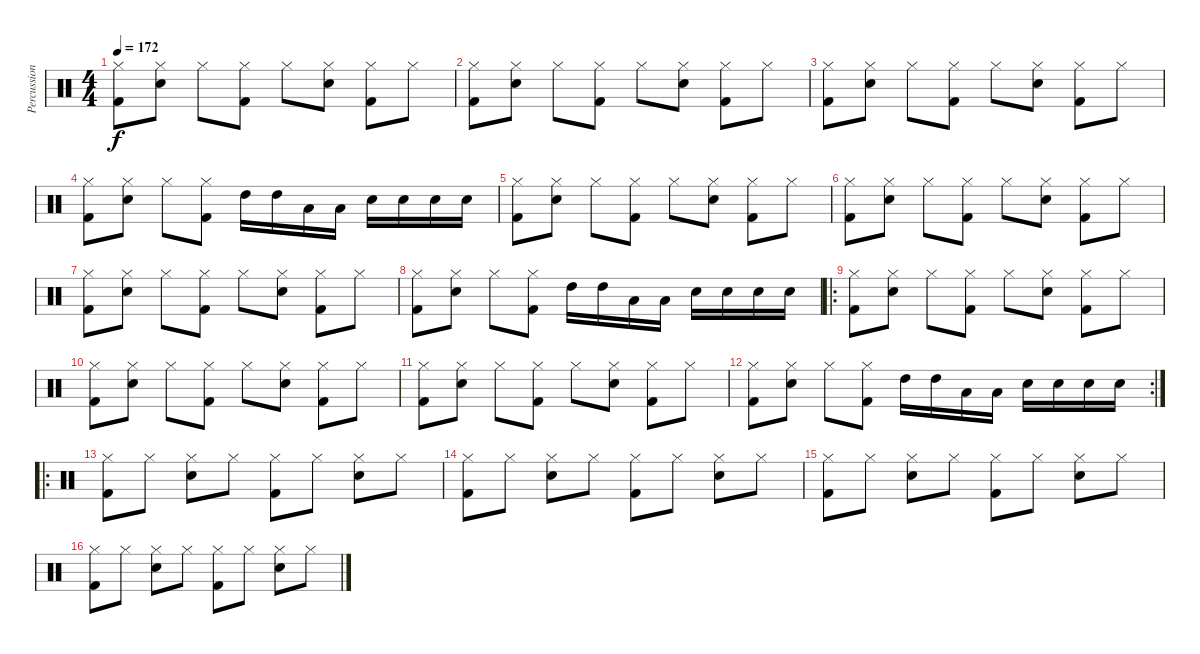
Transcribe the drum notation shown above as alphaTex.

\track ("Percussion" "Percussion") {instrument percussion}
\staff {score}
\articulation defaults
\ts (4 4)
\tempo 172
\clef neutral
\ks c
("Hi-Hat (closed)" "Kick (hit) 2").8{dy f} ("Hi-Hat (closed)" "Snare (hit) 2").8 "Hi-Hat (closed)".8 ("Hi-Hat (closed)" "Kick (hit) 2").8 "Hi-Hat (closed)".8 ("Hi-Hat (closed)" "Snare (hit) 2").8 ("Hi-Hat (closed)" "Kick (hit) 2").8 "Hi-Hat (closed)".8 |
("Hi-Hat (closed)" "Kick (hit) 2").8 ("Hi-Hat (closed)" "Snare (hit) 2").8 "Hi-Hat (closed)".8 ("Hi-Hat (closed)" "Kick (hit) 2").8 "Hi-Hat (closed)".8 ("Hi-Hat (closed)" "Snare (hit) 2").8 ("Hi-Hat (closed)" "Kick (hit) 2").8 "Hi-Hat (closed)".8 |
("Hi-Hat (closed)" "Kick (hit) 2").8 ("Hi-Hat (closed)" "Snare (hit) 2").8 "Hi-Hat (closed)".8 ("Hi-Hat (closed)" "Kick (hit) 2").8 "Hi-Hat (closed)".8 ("Hi-Hat (closed)" "Snare (hit) 2").8 ("Hi-Hat (closed)" "Kick (hit) 2").8 "Hi-Hat (closed)".8 |
("Hi-Hat (closed)" "Kick (hit) 2").8 ("Hi-Hat (closed)" "Snare (hit) 2").8 "Hi-Hat (closed)".8 ("Hi-Hat (closed)" "Kick (hit) 2").8 "High Tom (hit)".16 "High Tom (hit)".16 "Low Tom (hit)".16 "Low Tom (hit)".16 "Snare (hit) 2".16 "Snare (hit) 2".16 "Snare (hit) 2".16 "Snare (hit) 2".16 |
("Hi-Hat (closed)" "Kick (hit) 2").8 ("Hi-Hat (closed)" "Snare (hit) 2").8 "Hi-Hat (closed)".8 ("Hi-Hat (closed)" "Kick (hit) 2").8 "Hi-Hat (closed)".8 ("Hi-Hat (closed)" "Snare (hit) 2").8 ("Hi-Hat (closed)" "Kick (hit) 2").8 "Hi-Hat (closed)".8 |
("Hi-Hat (closed)" "Kick (hit) 2").8 ("Hi-Hat (closed)" "Snare (hit) 2").8 "Hi-Hat (closed)".8 ("Hi-Hat (closed)" "Kick (hit) 2").8 "Hi-Hat (closed)".8 ("Hi-Hat (closed)" "Snare (hit) 2").8 ("Hi-Hat (closed)" "Kick (hit) 2").8 "Hi-Hat (closed)".8 |
("Hi-Hat (closed)" "Kick (hit) 2").8 ("Hi-Hat (closed)" "Snare (hit) 2").8 "Hi-Hat (closed)".8 ("Hi-Hat (closed)" "Kick (hit) 2").8 "Hi-Hat (closed)".8 ("Hi-Hat (closed)" "Snare (hit) 2").8 ("Hi-Hat (closed)" "Kick (hit) 2").8 "Hi-Hat (closed)".8 |
("Hi-Hat (closed)" "Kick (hit) 2").8 ("Hi-Hat (closed)" "Snare (hit) 2").8 "Hi-Hat (closed)".8 ("Hi-Hat (closed)" "Kick (hit) 2").8 "High Tom (hit)".16 "High Tom (hit)".16 "Low Tom (hit)".16 "Low Tom (hit)".16 "Snare (hit) 2".16 "Snare (hit) 2".16 "Snare (hit) 2".16 "Snare (hit) 2".16 |
\ro
("Hi-Hat (closed)" "Kick (hit) 2").8 ("Hi-Hat (closed)" "Snare (hit) 2").8 "Hi-Hat (closed)".8 ("Hi-Hat (closed)" "Kick (hit) 2").8 "Hi-Hat (closed)".8 ("Hi-Hat (closed)" "Snare (hit) 2").8 ("Hi-Hat (closed)" "Kick (hit) 2").8 "Hi-Hat (closed)".8 |
("Hi-Hat (closed)" "Kick (hit) 2").8 ("Hi-Hat (closed)" "Snare (hit) 2").8 "Hi-Hat (closed)".8 ("Hi-Hat (closed)" "Kick (hit) 2").8 "Hi-Hat (closed)".8 ("Hi-Hat (closed)" "Snare (hit) 2").8 ("Hi-Hat (closed)" "Kick (hit) 2").8 "Hi-Hat (closed)".8 |
("Hi-Hat (closed)" "Kick (hit) 2").8 ("Hi-Hat (closed)" "Snare (hit) 2").8 "Hi-Hat (closed)".8 ("Hi-Hat (closed)" "Kick (hit) 2").8 "Hi-Hat (closed)".8 ("Hi-Hat (closed)" "Snare (hit) 2").8 ("Hi-Hat (closed)" "Kick (hit) 2").8 "Hi-Hat (closed)".8 |
\rc 2
("Hi-Hat (closed)" "Kick (hit) 2").8 ("Hi-Hat (closed)" "Snare (hit) 2").8 "Hi-Hat (closed)".8 ("Hi-Hat (closed)" "Kick (hit) 2").8 "High Tom (hit)".16 "High Tom (hit)".16 "Low Tom (hit)".16 "Low Tom (hit)".16 "Snare (hit) 2".16 "Snare (hit) 2".16 "Snare (hit) 2".16 "Snare (hit) 2".16 |
\ro
("Hi-Hat (closed)" "Kick (hit) 2").8 "Hi-Hat (closed)".8 ("Hi-Hat (closed)" "Snare (hit) 2").8 "Hi-Hat (closed)".8 ("Hi-Hat (closed)" "Kick (hit) 2").8 "Hi-Hat (closed)".8 ("Hi-Hat (closed)" "Snare (hit) 2").8 "Hi-Hat (closed)".8 |
("Hi-Hat (closed)" "Kick (hit) 2").8 "Hi-Hat (closed)".8 ("Hi-Hat (closed)" "Snare (hit) 2").8 "Hi-Hat (closed)".8 ("Hi-Hat (closed)" "Kick (hit) 2").8 "Hi-Hat (closed)".8 ("Hi-Hat (closed)" "Snare (hit) 2").8 "Hi-Hat (closed)".8 |
("Hi-Hat (closed)" "Kick (hit) 2").8 "Hi-Hat (closed)".8 ("Hi-Hat (closed)" "Snare (hit) 2").8 "Hi-Hat (closed)".8 ("Hi-Hat (closed)" "Kick (hit) 2").8 "Hi-Hat (closed)".8 ("Hi-Hat (closed)" "Snare (hit) 2").8 "Hi-Hat (closed)".8 |
("Hi-Hat (closed)" "Kick (hit) 2").8 "Hi-Hat (closed)".8 ("Hi-Hat (closed)" "Snare (hit) 2").8 "Hi-Hat (closed)".8 ("Hi-Hat (closed)" "Kick (hit) 2").8 "Hi-Hat (closed)".8 ("Hi-Hat (closed)" "Snare (hit) 2").8 "Hi-Hat (closed)".8
